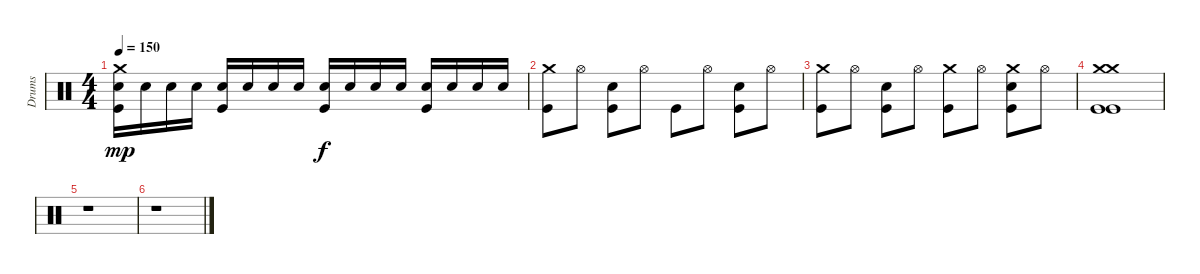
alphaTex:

\track ("Drums" "Drums") {instrument percussion}
\staff {score}
\articulation defaults
\ts (4 4)
\tempo 150
\clef neutral
\ks c
("Crash medium (hit)" "Electric Snare (hit)" "Kick (hit)").16{dy mp} "Electric Snare (hit)".16 "Electric Snare (hit)".16 "Electric Snare (hit)".16 ("Electric Snare (hit)" "Kick (hit)").16 "Electric Snare (hit)".16 "Electric Snare (hit)".16 "Electric Snare (hit)".16 ("Electric Snare (hit)" "Kick (hit)").16{dy f} "Electric Snare (hit)".16 "Electric Snare (hit)".16 "Electric Snare (hit)".16 ("Electric Snare (hit)" "Kick (hit)").16 "Electric Snare (hit)".16 "Electric Snare (hit)".16 "Electric Snare (hit)".16 |
("Crash medium (hit)" "Kick (hit)").8 "Hi-Hat (open)".8 ("Electric Snare (hit)" "Kick (hit)").8 "Hi-Hat (open)".8 "Kick (hit)".8 "Hi-Hat (open)".8 ("Electric Snare (hit)" "Kick (hit)").8 "Hi-Hat (open)".8 |
("Crash medium (hit)" "Kick (hit)").8 "Hi-Hat (open)".8 ("Electric Snare (hit)" "Kick (hit)").8 "Hi-Hat (open)".8 ("Crash medium (hit)" "Kick (hit)").8 "Hi-Hat (open)".8 ("Crash medium (hit)" "Electric Snare (hit)" "Kick (hit)").8 "Hi-Hat (open)".8 |
("Crash medium (hit)" "Crash medium (hit)" "Kick (hit)" "Kick (hit)").1 |
r.1 |
r.1
